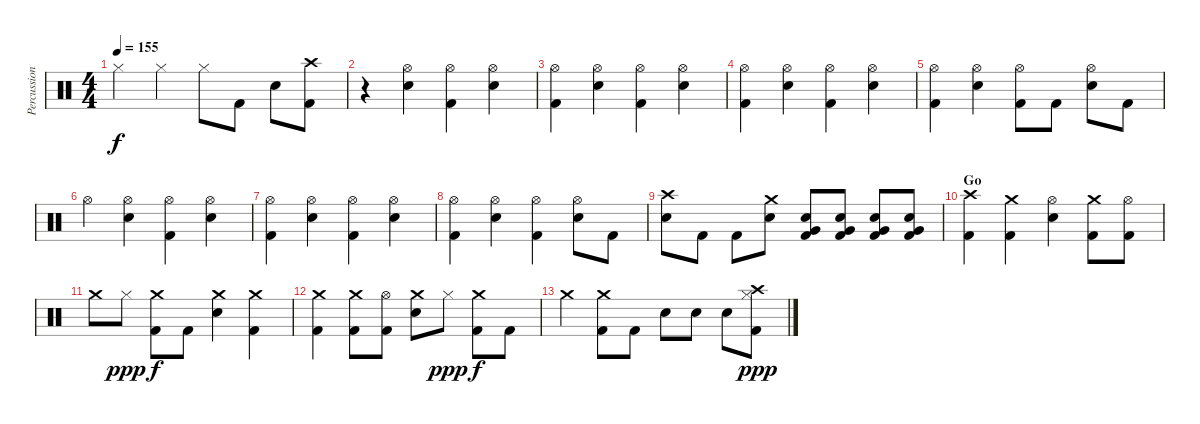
\track ("Percussion" "Percussion") {instrument percussion}
\staff {score}
\articulation defaults
\ts (4 4)
\tempo 155
\clef neutral
\ks c "Hi-Hat (closed)".4{dy f volume 7} "Hi-Hat (closed)".4 "Hi-Hat (closed)".8 "Kick (hit) 2".8 "Electric Snare (hit)".8
("Crash high (hit)" "Kick (hit) 2").8 |
r.4 ("Hi-Hat (open)" "Electric Snare (hit)").4 ("Hi-Hat (open)" "Kick (hit) 2").4 ("Hi-Hat (open)" "Electric Snare (hit)").4 |
("Hi-Hat (open)" "Kick (hit) 2").4 ("Hi-Hat (open)" "Electric Snare (hit)").4 ("Hi-Hat (open)" "Kick (hit) 2").4 ("Hi-Hat (open)" "Electric Snare (hit)").4 |
("Hi-Hat (open)" "Kick (hit) 2").4 ("Hi-Hat (open)" "Electric Snare (hit)").4 ("Hi-Hat (open)" "Kick (hit) 2").4 ("Hi-Hat (open)" "Electric Snare (hit)").4 |
("Hi-Hat (open)" "Kick (hit) 2").4 ("Hi-Hat (open)" "Electric Snare (hit)").4 ("Hi-Hat (open)" "Kick (hit) 2").8 "Kick (hit) 2".8 ("Hi-Hat (open)" "Electric Snare (hit)").8 "Kick (hit) 2".8 |
"Hi-Hat (open)".4 ("Hi-Hat (open)" "Electric Snare (hit)").4 ("Hi-Hat (open)" "Kick (hit) 2").4 ("Hi-Hat (open)" "Electric Snare (hit)").4 |
("Hi-Hat (open)" "Kick (hit) 2").4 ("Hi-Hat (open)" "Electric Snare (hit)").4 ("Hi-Hat (open)" "Kick (hit) 2").4 ("Hi-Hat (open)" "Electric Snare (hit)").4 |
("Hi-Hat (open)" "Kick (hit) 2").4{volume 13} ("Hi-Hat (open)" "Electric Snare (hit)").4 ("Hi-Hat (open)" "Kick (hit) 2").4 ("Hi-Hat (open)" "Electric Snare (hit)").8 "Kick (hit) 2".8 |
("Crash high (hit)" "Snare (hit) 2").8 "Kick (hit) 2".8 "Kick (hit) 2".8 ("Crash medium (hit)" "Snare (hit) 2").8 ("Snare (hit) 2" "Very Low Tom (hit)" "Kick (hit) 2").8 ("Snare (hit) 2" "Very Low Tom (hit)" "Kick (hit) 2").8 ("Snare (hit) 2" "Very Low Tom (hit)" "Kick (hit) 2").8 ("Snare (hit) 2" "Very Low Tom (hit)" "Kick (hit) 2").8 |
\section ("" "Go")
("Crash high (hit)" "Kick (hit) 2").4 ("Crash medium (hit)" "Kick (hit) 2").4 ("Hi-Hat (open)" "Snare (hit) 2").4 ("Crash medium (hit)" "Kick (hit) 2").8 ("Hi-Hat (open)" "Kick (hit) 2").8 |
"Crash medium (hit)".8 "Hi-Hat (closed)".8{dy ppp} ("Crash medium (hit)" "Kick (hit) 2").8{dy f} "Kick (hit) 2".8 ("Crash medium (hit)" "Snare (hit) 2").4 ("Crash medium (hit)" "Kick (hit) 2").4 |
("Crash medium (hit)" "Kick (hit) 2").4 ("Crash medium (hit)" "Kick (hit) 2").8 ("Hi-Hat (open)" "Kick (hit) 2").8 ("Crash medium (hit)" "Snare (hit) 2").8 "Hi-Hat (closed)".8{dy ppp} ("Crash medium (hit)" "Kick (hit) 2").8{dy f} "Kick (hit) 2".8 |
"Crash medium (hit)".4 ("Crash medium (hit)" "Kick (hit) 2").8 "Kick (hit) 2".8 "Snare (hit) 2".8 "Snare (hit) 2".8 "Snare (hit) 2".8 ("Crash high (hit)" "Hi-Hat (closed)" "Kick (hit) 2").8{dy ppp}
